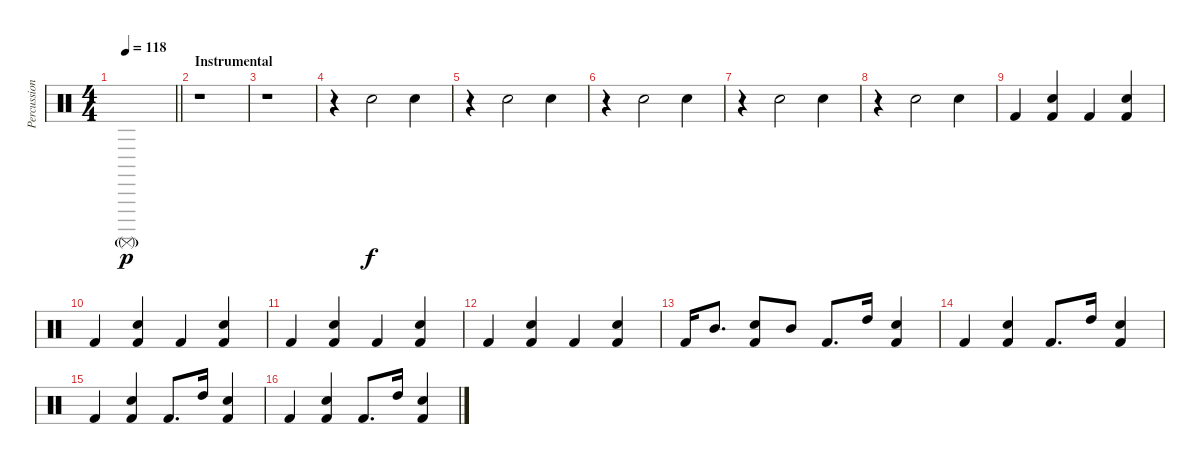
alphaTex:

\track ("Percussion" "Percussion") {instrument percussion}
\staff {score}
\articulation defaults
\ts (4 4)
\tempo 118
\clef neutral
\barLineRight lightlight
\ks c "Surdo (mute)"{g}.1{dy p}
|
\section ("" "Instrumental")
r.1 |
r.1 |
r.4 "Hand Clap (hit)".2{dy f} "Hand Clap (hit)".4 |
r.4 "Hand Clap (hit)".2 "Hand Clap (hit)".4 |
r.4 "Hand Clap (hit)".2 "Hand Clap (hit)".4 |
r.4 "Hand Clap (hit)".2 "Hand Clap (hit)".4 |
r.4 "Hand Clap (hit)".2 "Hand Clap (hit)".4 |
"Kick (hit) 2".4 ("Hand Clap (hit)" "Kick (hit) 2").4 "Kick (hit) 2".4 ("Hand Clap (hit)" "Kick (hit) 2").4 |
"Kick (hit) 2".4 ("Hand Clap (hit)" "Kick (hit) 2").4 "Kick (hit) 2".4 ("Hand Clap (hit)" "Kick (hit) 2").4 |
"Kick (hit) 2".4 ("Hand Clap (hit)" "Kick (hit) 2").4 "Kick (hit) 2".4 ("Hand Clap (hit)" "Kick (hit) 2").4 |
"Kick (hit) 2".4 ("Hand Clap (hit)" "Kick (hit) 2").4 "Kick (hit) 2".4 ("Hand Clap (hit)" "Kick (hit) 2").4 |
"Kick (hit) 2".16 "Mid Tom (hit)".8{d} ("Hand Clap (hit)" "Kick (hit) 2").8 "Mid Tom (hit)".8 "Kick (hit) 2".8{d} "High Tom (hit)".16 ("Hand Clap (hit)" "Kick (hit) 2").4 |
"Kick (hit) 2".4 ("Hand Clap (hit)" "Kick (hit) 2").4 "Kick (hit) 2".8{d} "High Tom (hit)".16 ("Hand Clap (hit)" "Kick (hit) 2").4 |
"Kick (hit) 2".4 ("Hand Clap (hit)" "Kick (hit) 2").4 "Kick (hit) 2".8{d} "High Tom (hit)".16 ("Hand Clap (hit)" "Kick (hit) 2").4 |
"Kick (hit) 2".4 ("Hand Clap (hit)" "Kick (hit) 2").4 "Kick (hit) 2".8{d} "High Tom (hit)".16 ("Hand Clap (hit)" "Kick (hit) 2").4
